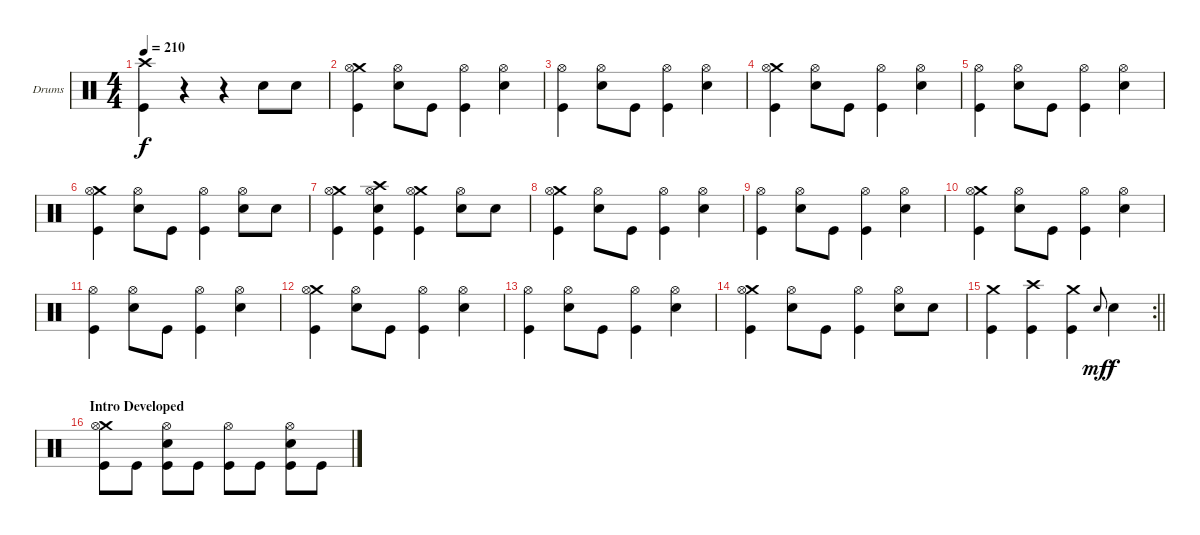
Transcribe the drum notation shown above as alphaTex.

\bracketExtendMode groupsimilarinstruments
\firstSystemTrackNameOrientation horizontal
\otherSystemsTrackNameOrientation horizontal
\track ("Drumkit" "Drums") {instrument percussion}
\staff {score}
\articulation defaults
\ts (4 4)
\tempo 210
\clef neutral
\ks c
("Crash high (hit)" "Kick (hit)").4{dy f} r.4 r.4 "Snare (hit) 2".8 "Snare (hit) 2".8 |
("Crash medium (hit)" "Hi-Hat (open)" "Kick (hit)").4 ("Hi-Hat (open)" "Snare (hit) 2").8 "Kick (hit)".8 ("Hi-Hat (open)" "Kick (hit)").4 ("Hi-Hat (open)" "Snare (hit) 2").4 |
("Hi-Hat (open)" "Kick (hit)").4 ("Hi-Hat (open)" "Snare (hit) 2").8 "Kick (hit)".8 ("Hi-Hat (open)" "Kick (hit)").4 ("Hi-Hat (open)" "Snare (hit) 2").4 |
("Crash medium (hit)" "Hi-Hat (open)" "Kick (hit)").4 ("Hi-Hat (open)" "Snare (hit) 2").8 "Kick (hit)".8 ("Hi-Hat (open)" "Kick (hit)").4 ("Hi-Hat (open)" "Snare (hit) 2").4 |
("Hi-Hat (open)" "Kick (hit)").4 ("Hi-Hat (open)" "Snare (hit) 2").8 "Kick (hit)".8 ("Hi-Hat (open)" "Kick (hit)").4 ("Hi-Hat (open)" "Snare (hit) 2").4 |
("Crash medium (hit)" "Hi-Hat (open)" "Kick (hit)").4 ("Hi-Hat (open)" "Snare (hit) 2").8 "Kick (hit)".8 ("Hi-Hat (open)" "Kick (hit)").4 ("Hi-Hat (open)" "Snare (hit) 2").8 "Snare (hit) 2".8 |
("Crash medium (hit)" "Hi-Hat (open)" "Kick (hit)").4 ("Crash high (hit)" "Hi-Hat (open)" "Snare (hit) 2" "Kick (hit)").4 ("Crash medium (hit)" "Hi-Hat (open)" "Kick (hit)").4 ("Hi-Hat (open)" "Snare (hit) 2").8 "Snare (hit) 2".8 |
("Crash medium (hit)" "Hi-Hat (open)" "Kick (hit)").4 ("Hi-Hat (open)" "Snare (hit) 2").8 "Kick (hit)".8 ("Hi-Hat (open)" "Kick (hit)").4 ("Hi-Hat (open)" "Snare (hit) 2").4 |
("Hi-Hat (open)" "Kick (hit)").4 ("Hi-Hat (open)" "Snare (hit) 2").8 "Kick (hit)".8 ("Hi-Hat (open)" "Kick (hit)").4 ("Hi-Hat (open)" "Snare (hit) 2").4 |
("Crash medium (hit)" "Hi-Hat (open)" "Kick (hit)").4 ("Hi-Hat (open)" "Snare (hit) 2").8 "Kick (hit)".8 ("Hi-Hat (open)" "Kick (hit)").4 ("Hi-Hat (open)" "Snare (hit) 2").4 |
("Hi-Hat (open)" "Kick (hit)").4 ("Hi-Hat (open)" "Snare (hit) 2").8 "Kick (hit)".8 ("Hi-Hat (open)" "Kick (hit)").4 ("Hi-Hat (open)" "Snare (hit) 2").4 |
("Crash medium (hit)" "Hi-Hat (open)" "Kick (hit)").4 ("Hi-Hat (open)" "Snare (hit) 2").8 "Kick (hit)".8 ("Hi-Hat (open)" "Kick (hit)").4 ("Hi-Hat (open)" "Snare (hit) 2").4 |
("Hi-Hat (open)" "Kick (hit)").4 ("Hi-Hat (open)" "Snare (hit) 2").8 "Kick (hit)".8 ("Hi-Hat (open)" "Kick (hit)").4 ("Hi-Hat (open)" "Snare (hit) 2").4 |
("Crash medium (hit)" "Hi-Hat (open)" "Kick (hit)").4 ("Hi-Hat (open)" "Snare (hit) 2").8 "Kick (hit)".8 ("Hi-Hat (open)" "Kick (hit)").4 ("Hi-Hat (open)" "Snare (hit) 2").8 "Snare (hit) 2".8 |
\rc 2
\barLineRight lightlight
("Crash medium (hit)" "Kick (hit)").4 ("Crash high (hit)" "Kick (hit)").4 ("Crash medium (hit)" "Kick (hit)").4 "Snare (hit) 2".8{gr onbeat dy mf} "Snare (hit) 2".4{dy f} |
\section ("" "Intro Developed")
("Crash medium (hit)" "Hi-Hat (open)" "Kick (hit)").8 "Kick (hit)".8 ("Hi-Hat (open)" "Snare (hit) 2" "Kick (hit)").8 "Kick (hit)".8 ("Hi-Hat (open)" "Kick (hit)").8 "Kick (hit)".8 ("Hi-Hat (open)" "Snare (hit) 2" "Kick (hit)").8 "Kick (hit)".8
